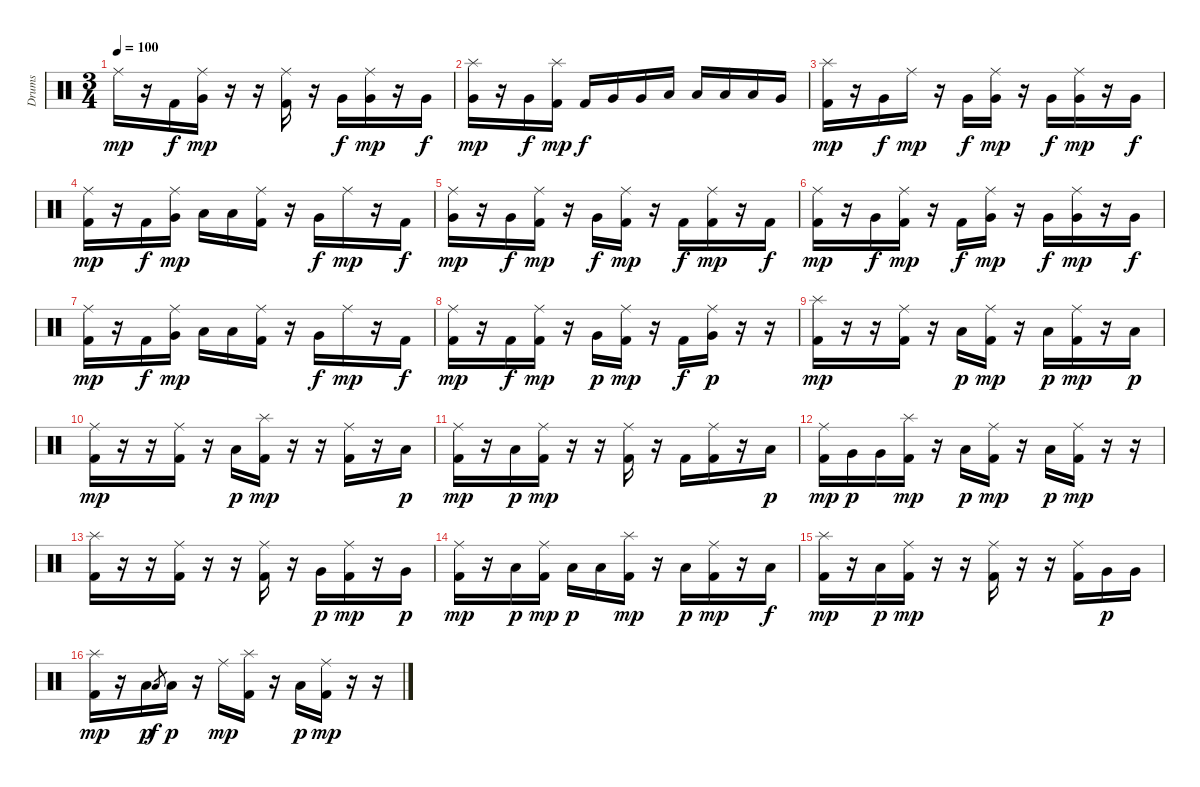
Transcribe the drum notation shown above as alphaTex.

\track ("Drums" "Drums") {instrument percussion}
\staff {score}
\articulation defaults
\ts (3 4)
\tempo 100
\clef neutral
\ks c "Ride (middle)".16{dy mp}
r.16 "Kick (hit) 2".16{dy f} ("Ride (middle)" "Very Low Tom (hit)").16{dy mp} r.16 r.16 ("Ride (middle)" "Kick (hit) 2").16 r.16 "Very Low Tom (hit)".16{dy f} ("Ride (middle)" "Very Low Tom (hit)").16{dy mp} r.16 "Very Low Tom (hit)".16{dy f} |
("Splash (hit)" "Very Low Tom (hit)").16{dy mp} r.16 "Very Low Tom (hit)".16{dy f} ("Splash (hit)" "Kick (hit) 2").16{dy mp} "Kick (hit) 2".16{dy f} "Very Low Tom (hit)".16 "Very Low Tom (hit)".16 "Low Floor Tom (hit)".16 "Low Floor Tom (hit)".16 "Low Floor Tom (hit)".16 "Low Floor Tom (hit)".16 "Very Low Tom (hit)".16 |
("Splash (hit)" "Kick (hit) 2").16{dy mp} r.16 "Very Low Tom (hit)".16{dy f} "Ride (middle)".16{dy mp} r.16 "Very Low Tom (hit)".16{dy f} ("Ride (middle)" "Very Low Tom (hit)").16{dy mp} r.16 "Very Low Tom (hit)".16{dy f} ("Ride (middle)" "Very Low Tom (hit)").16{dy mp} r.16 "Very Low Tom (hit)".16{dy f} |
("Ride (middle)" "Kick (hit) 2").16{dy mp} r.16 "Kick (hit) 2".16{dy f} ("Ride (middle)" "Very Low Tom (hit)").16{dy mp} "Low Floor Tom (hit)".16 "Low Floor Tom (hit)".16 ("Ride (middle)" "Kick (hit) 2").16 r.16 "Very Low Tom (hit)".16{dy f} "Ride (middle)".16{dy mp} r.16 "Kick (hit) 2".16{dy f} |
("Ride (middle)" "Very Low Tom (hit)").16{dy mp} r.16 "Very Low Tom (hit)".16{dy f} ("Ride (middle)" "Kick (hit) 2").16{dy mp} r.16 "Very Low Tom (hit)".16{dy f} ("Ride (middle)" "Kick (hit) 2").16{dy mp} r.16 "Kick (hit) 2".16{dy f} ("Ride (middle)" "Kick (hit) 2").16{dy mp} r.16 "Kick (hit) 2".16{dy f} |
("Ride (middle)" "Kick (hit) 2").16{dy mp} r.16 "Very Low Tom (hit)".16{dy f} ("Ride (middle)" "Kick (hit) 2").16{dy mp} r.16 "Kick (hit) 2".16{dy f} ("Ride (middle)" "Very Low Tom (hit)").16{dy mp} r.16 "Very Low Tom (hit)".16{dy f} ("Ride (middle)" "Very Low Tom (hit)").16{dy mp} r.16 "Very Low Tom (hit)".16{dy f} |
("Ride (middle)" "Kick (hit) 2").16{dy mp} r.16 "Kick (hit) 2".16{dy f} ("Ride (middle)" "Very Low Tom (hit)").16{dy mp} "Low Floor Tom (hit)".16 "Low Floor Tom (hit)".16 ("Ride (middle)" "Kick (hit) 2").16 r.16 "Very Low Tom (hit)".16{dy f} "Ride (middle)".16{dy mp} r.16 "Kick (hit) 2".16{dy f} |
("Ride (middle)" "Kick (hit) 2").16{dy mp} r.16 "Kick (hit) 2".16{dy f} ("Ride (middle)" "Kick (hit) 2").16{dy mp} r.16 "Very Low Tom (hit)".16{dy p} ("Ride (middle)" "Kick (hit) 2").16{dy mp} r.16 "Kick (hit) 2".16{dy f} ("Ride (middle)" "Very Low Tom (hit)").16{dy p} r.16 r.16 |
("Splash (hit)" "Kick (hit) 2").16{dy mp} r.16 r.16 ("Ride (middle)" "Kick (hit) 2").16 r.16 "Low Floor Tom (hit)".16{dy p} ("Ride (middle)" "Kick (hit) 2").16{dy mp} r.16 "Low Floor Tom (hit)".16{dy p} ("Ride (middle)" "Kick (hit) 2").16{dy mp} r.16 "Low Floor Tom (hit)".16{dy p} |
("Ride (middle)" "Kick (hit) 2").16{dy mp} r.16 r.16 ("Ride (middle)" "Kick (hit) 2").16 r.16 "Low Floor Tom (hit)".16{dy p} ("Splash (hit)" "Kick (hit) 2").16{dy mp} r.16 r.16 ("Ride (middle)" "Kick (hit) 2").16 r.16 "Low Floor Tom (hit)".16{dy p} |
("Ride (middle)" "Kick (hit) 2").16{dy mp} r.16 "Low Floor Tom (hit)".16{dy p} ("Ride (middle)" "Kick (hit) 2").16{dy mp} r.16 r.16 ("Ride (middle)" "Kick (hit) 2").16 r.16 "Kick (hit) 2".16 ("Ride (middle)" "Kick (hit) 2").16 r.16 "Low Floor Tom (hit)".16{dy p} |
("Ride (middle)" "Kick (hit) 2").16{dy mp} "Very Low Tom (hit)".16{dy p} "Very Low Tom (hit)".16 ("Splash (hit)" "Kick (hit) 2").16{dy mp} r.16 "Low Floor Tom (hit)".16{dy p} ("Ride (middle)" "Kick (hit) 2").16{dy mp} r.16 "Low Floor Tom (hit)".16{dy p} ("Ride (middle)" "Kick (hit) 2").16{dy mp} r.16 r.16 |
("Splash (hit)" "Kick (hit) 2").16 r.16 r.16 ("Ride (middle)" "Kick (hit) 2").16 r.16 r.16 ("Ride (middle)" "Kick (hit) 2").16 r.16 "Very Low Tom (hit)".16{dy p} ("Ride (middle)" "Kick (hit) 2").16{dy mp} r.16 "Very Low Tom (hit)".16{dy p} |
("Ride (middle)" "Kick (hit) 2").16{dy mp} r.16 "Low Floor Tom (hit)".16{dy p} ("Ride (middle)" "Kick (hit) 2").16{dy mp} "Low Floor Tom (hit)".16{dy p} "Low Floor Tom (hit)".16 ("Splash (hit)" "Kick (hit) 2").16{dy mp} r.16 "Low Floor Tom (hit)".16{dy p} ("Ride (middle)" "Kick (hit) 2").16{dy mp} r.16 "Low Floor Tom (hit)".16{dy f} |
("Splash (hit)" "Kick (hit) 2").16{dy mp} r.16 "Low Floor Tom (hit)".16{dy p} ("Ride (middle)" "Kick (hit) 2").16{dy mp} r.16 r.16 ("Ride (middle)" "Kick (hit) 2").16 r.16 r.16 ("Ride (middle)" "Kick (hit) 2").16 "Very Low Tom (hit)".16{dy p} "Very Low Tom (hit)".16 |
("Splash (hit)" "Kick (hit) 2").16{dy mp} r.16 "Low Floor Tom (hit)".16{dy p} "Low Floor Tom (hit)".8{gr dy f} "Low Floor Tom (hit)".16{dy p} r.16 "Ride (middle)".16{dy mp} ("Splash (hit)" "Kick (hit) 2").16 r.16 "Low Floor Tom (hit)".16{dy p} ("Ride (middle)" "Kick (hit) 2").16{dy mp} r.16 r.16
